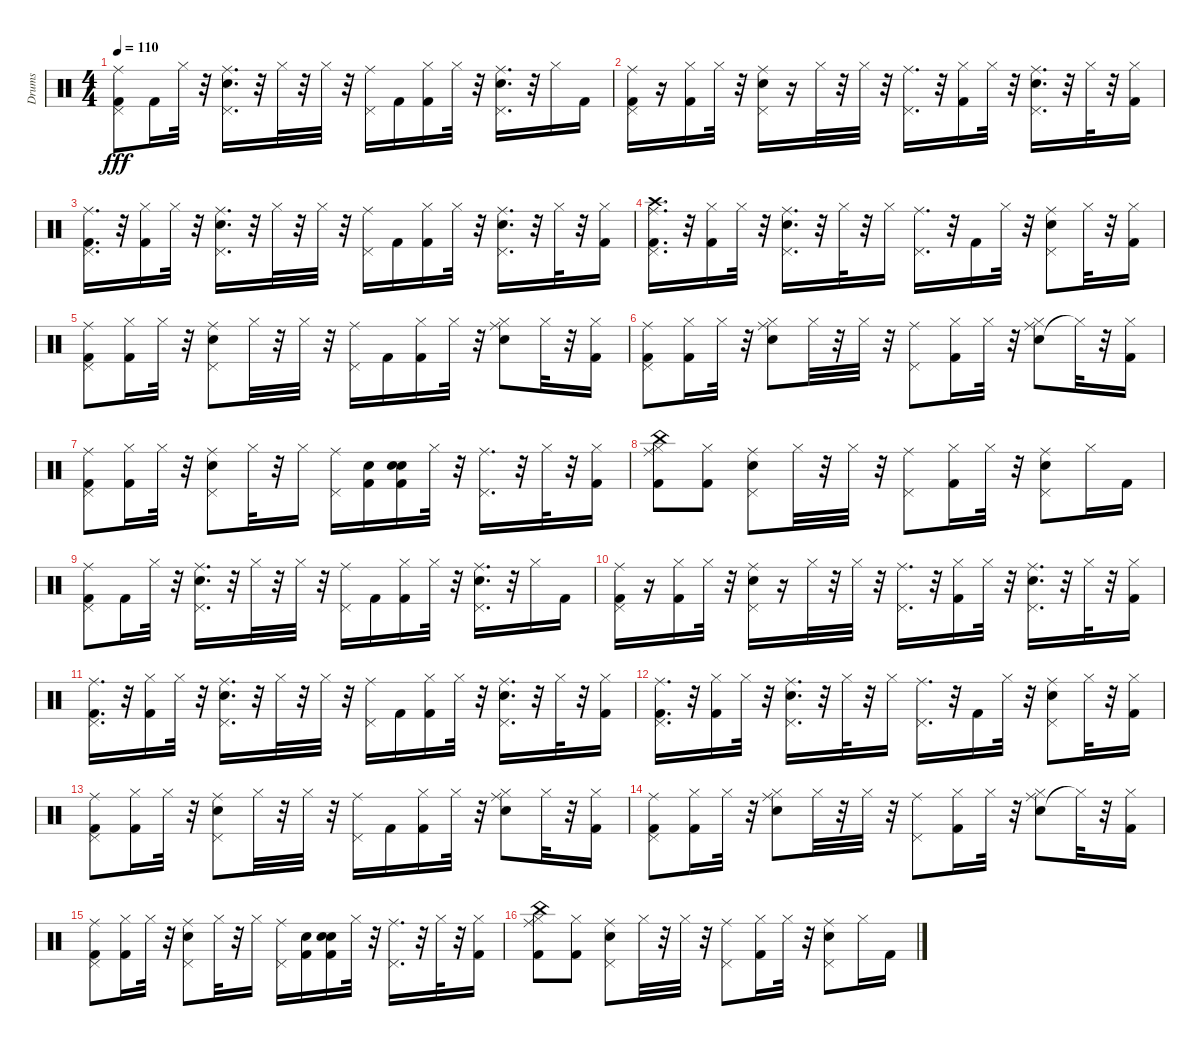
\track ("Drums" "Drums") {instrument percussion}
\staff {score}
\articulation defaults
\ts (4 4)
\tempo 110
\clef neutral
\ks c
("Kick (hit) 2" "Pedal Hi-Hat (hit)" "Ride (middle)").8{dy fff} "Kick (hit) 2".16 "Hi-Hat (closed)".32 r.32 ("Snare (hit) 2" "Pedal Hi-Hat (hit)" "Ride (middle)").16{d} r.32 "Hi-Hat (closed)".32 r.32 "Hi-Hat (closed)".32 r.32 ("Pedal Hi-Hat (hit)" "Ride (middle)").16 "Kick (hit) 2".16 ("Kick (hit) 2" "Hi-Hat (closed)").16 "Hi-Hat (closed)".32 r.32 ("Snare (hit) 2" "Pedal Hi-Hat (hit)" "Ride (middle)").16{d} r.32 "Hi-Hat (closed)".16 "Kick (hit) 2".16 |
("Kick (hit) 2" "Pedal Hi-Hat (hit)" "Ride (middle)").16 r.16 ("Kick (hit) 2" "Hi-Hat (closed)").16 "Hi-Hat (closed)".32 r.32 ("Snare (hit) 2" "Pedal Hi-Hat (hit)" "Ride (middle)").16 r.16 "Hi-Hat (closed)".32 r.32 "Hi-Hat (closed)".32 r.32 ("Pedal Hi-Hat (hit)" "Ride (middle)").16{d} r.32 ("Kick (hit) 2" "Hi-Hat (closed)").16 "Hi-Hat (closed)".32 r.32 ("Snare (hit) 2" "Pedal Hi-Hat (hit)" "Ride (middle)").16{d} r.32 "Hi-Hat (closed)".32 r.32 ("Kick (hit) 2" "Hi-Hat (closed)").16 |
("Kick (hit) 2" "Pedal Hi-Hat (hit)" "Ride (middle)").16{d} r.32 ("Kick (hit) 2" "Hi-Hat (closed)").16 "Hi-Hat (closed)".32 r.32 ("Snare (hit) 2" "Pedal Hi-Hat (hit)" "Ride (middle)").16{d} r.32 "Hi-Hat (closed)".32 r.32 "Hi-Hat (closed)".32 r.32 ("Pedal Hi-Hat (hit)" "Ride (middle)").16 "Kick (hit) 2".16 ("Kick (hit) 2" "Hi-Hat (closed)").16 "Hi-Hat (closed)".32 r.32 ("Snare (hit) 2" "Pedal Hi-Hat (hit)" "Ride (middle)").16{d} r.32 "Hi-Hat (closed)".32 r.32 ("Kick (hit) 2" "Hi-Hat (closed)").16 |
("Kick (hit) 2" "Pedal Hi-Hat (hit)" "Ride (middle)" "Crash high (hit)").16{d} r.32 ("Kick (hit) 2" "Hi-Hat (closed)").16 "Hi-Hat (closed)".32 r.32 ("Snare (hit) 2" "Pedal Hi-Hat (hit)" "Ride (middle)").16{d} r.32 "Hi-Hat (closed)".32 r.32 "Hi-Hat (closed)".16 ("Pedal Hi-Hat (hit)" "Ride (middle)").16{d} r.32 "Kick (hit) 2".16 "Hi-Hat (closed)".32 r.32 ("Snare (hit) 2" "Pedal Hi-Hat (hit)" "Ride (middle)").8 "Hi-Hat (closed)".32 r.32 ("Kick (hit) 2" "Hi-Hat (closed)").16 |
("Kick (hit) 2" "Pedal Hi-Hat (hit)" "Ride (middle)").8 ("Kick (hit) 2" "Hi-Hat (closed)").16 "Hi-Hat (closed)".32 r.32 ("Snare (hit) 2" "Pedal Hi-Hat (hit)" "Ride (middle)").8 "Hi-Hat (closed)".32 r.32 "Hi-Hat (closed)".32 r.32 ("Pedal Hi-Hat (hit)" "Ride (middle)").16 "Kick (hit) 2".16 ("Kick (hit) 2" "Hi-Hat (closed)").16 "Hi-Hat (closed)".32 r.32 ("Snare (hit) 2" "Hi-Hat (closed)" "Ride (middle)").8 "Hi-Hat (closed)".32 r.32 ("Kick (hit) 2" "Hi-Hat (closed)").16 |
("Kick (hit) 2" "Pedal Hi-Hat (hit)" "Ride (middle)").8 ("Kick (hit) 2" "Hi-Hat (closed)").16 "Hi-Hat (closed)".32 r.32 ("Snare (hit) 2" "Hi-Hat (closed)" "Ride (middle)").8 "Hi-Hat (closed)".32 r.32 "Hi-Hat (closed)".32 r.32 ("Pedal Hi-Hat (hit)" "Ride (middle)").8 ("Kick (hit) 2" "Hi-Hat (closed)").16 "Hi-Hat (closed)".32 r.32 ("Snare (hit) 2" "Hi-Hat (closed)" "Ride (middle)").8 "Hi-Hat (closed)"{t}.32 r.32 ("Kick (hit) 2" "Hi-Hat (closed)").16 |
("Kick (hit) 2" "Pedal Hi-Hat (hit)" "Ride (middle)").8 ("Kick (hit) 2" "Hi-Hat (closed)").16 "Hi-Hat (closed)".32 r.32 ("Snare (hit) 2" "Pedal Hi-Hat (hit)" "Ride (middle)").8 "Hi-Hat (closed)".32 r.32 "Hi-Hat (closed)".16 ("Pedal Hi-Hat (hit)" "Ride (middle)").16 ("Kick (hit) 2" "Snare (hit) 2").16 ("Snare (hit) 2" "Kick (hit) 2" "Snare (hit) 2").16 "Hi-Hat (closed)".32 r.32 ("Pedal Hi-Hat (hit)" "Ride (middle)").16{d} r.32 "Hi-Hat (closed)".32 r.32 ("Kick (hit) 2" "Hi-Hat (closed)").16 |
("Kick (hit) 2" "Hi-Hat (closed)" "Ride (middle)" "China (hit)").8 ("Kick (hit) 2" "Hi-Hat (closed)").8 ("Snare (hit) 2" "Pedal Hi-Hat (hit)" "Ride (middle)").8 "Hi-Hat (closed)".32 r.32 "Hi-Hat (closed)".32 r.32 ("Pedal Hi-Hat (hit)" "Ride (middle)").8 ("Kick (hit) 2" "Hi-Hat (closed)").16 "Hi-Hat (closed)".32 r.32 ("Snare (hit) 2" "Pedal Hi-Hat (hit)" "Ride (middle)").8 "Hi-Hat (closed)".16 "Kick (hit) 2".16 |
("Kick (hit) 2" "Pedal Hi-Hat (hit)" "Ride (middle)").8 "Kick (hit) 2".16 "Hi-Hat (closed)".32 r.32 ("Snare (hit) 2" "Pedal Hi-Hat (hit)" "Ride (middle)").16{d} r.32 "Hi-Hat (closed)".32 r.32 "Hi-Hat (closed)".32 r.32 ("Pedal Hi-Hat (hit)" "Ride (middle)").16 "Kick (hit) 2".16 ("Kick (hit) 2" "Hi-Hat (closed)").16 "Hi-Hat (closed)".32 r.32 ("Snare (hit) 2" "Pedal Hi-Hat (hit)" "Ride (middle)").16{d} r.32 "Hi-Hat (closed)".16 "Kick (hit) 2".16 |
("Kick (hit) 2" "Pedal Hi-Hat (hit)" "Ride (middle)").16 r.16 ("Kick (hit) 2" "Hi-Hat (closed)").16 "Hi-Hat (closed)".32 r.32 ("Snare (hit) 2" "Pedal Hi-Hat (hit)" "Ride (middle)").16 r.16 "Hi-Hat (closed)".32 r.32 "Hi-Hat (closed)".32 r.32 ("Pedal Hi-Hat (hit)" "Ride (middle)").16{d} r.32 ("Kick (hit) 2" "Hi-Hat (closed)").16 "Hi-Hat (closed)".32 r.32 ("Snare (hit) 2" "Pedal Hi-Hat (hit)" "Ride (middle)").16{d} r.32 "Hi-Hat (closed)".32 r.32 ("Kick (hit) 2" "Hi-Hat (closed)").16 |
("Kick (hit) 2" "Pedal Hi-Hat (hit)" "Ride (middle)").16{d} r.32 ("Kick (hit) 2" "Hi-Hat (closed)").16 "Hi-Hat (closed)".32 r.32 ("Snare (hit) 2" "Pedal Hi-Hat (hit)" "Ride (middle)").16{d} r.32 "Hi-Hat (closed)".32 r.32 "Hi-Hat (closed)".32 r.32 ("Pedal Hi-Hat (hit)" "Ride (middle)").16 "Kick (hit) 2".16 ("Kick (hit) 2" "Hi-Hat (closed)").16 "Hi-Hat (closed)".32 r.32 ("Snare (hit) 2" "Pedal Hi-Hat (hit)" "Ride (middle)").16{d} r.32 "Hi-Hat (closed)".32 r.32 ("Kick (hit) 2" "Hi-Hat (closed)").16 |
("Kick (hit) 2" "Pedal Hi-Hat (hit)" "Ride (middle)").16{d} r.32 ("Kick (hit) 2" "Hi-Hat (closed)").16 "Hi-Hat (closed)".32 r.32 ("Snare (hit) 2" "Pedal Hi-Hat (hit)" "Ride (middle)").16{d} r.32 "Hi-Hat (closed)".32 r.32 "Hi-Hat (closed)".16 ("Pedal Hi-Hat (hit)" "Ride (middle)").16{d} r.32 "Kick (hit) 2".16 "Hi-Hat (closed)".32 r.32 ("Snare (hit) 2" "Pedal Hi-Hat (hit)" "Ride (middle)").8 "Hi-Hat (closed)".32 r.32 ("Kick (hit) 2" "Hi-Hat (closed)").16 |
("Kick (hit) 2" "Pedal Hi-Hat (hit)" "Ride (middle)").8 ("Kick (hit) 2" "Hi-Hat (closed)").16 "Hi-Hat (closed)".32 r.32 ("Snare (hit) 2" "Pedal Hi-Hat (hit)" "Ride (middle)").8 "Hi-Hat (closed)".32 r.32 "Hi-Hat (closed)".32 r.32 ("Pedal Hi-Hat (hit)" "Ride (middle)").16 "Kick (hit) 2".16 ("Kick (hit) 2" "Hi-Hat (closed)").16 "Hi-Hat (closed)".32 r.32 ("Snare (hit) 2" "Hi-Hat (closed)" "Ride (middle)").8 "Hi-Hat (closed)".32 r.32 ("Kick (hit) 2" "Hi-Hat (closed)").16 |
("Kick (hit) 2" "Pedal Hi-Hat (hit)" "Ride (middle)").8 ("Kick (hit) 2" "Hi-Hat (closed)").16 "Hi-Hat (closed)".32 r.32 ("Snare (hit) 2" "Hi-Hat (closed)" "Ride (middle)").8 "Hi-Hat (closed)".32 r.32 "Hi-Hat (closed)".32 r.32 ("Pedal Hi-Hat (hit)" "Ride (middle)").8 ("Kick (hit) 2" "Hi-Hat (closed)").16 "Hi-Hat (closed)".32 r.32 ("Snare (hit) 2" "Hi-Hat (closed)" "Ride (middle)").8 "Hi-Hat (closed)"{t}.32 r.32 ("Kick (hit) 2" "Hi-Hat (closed)").16 |
("Kick (hit) 2" "Pedal Hi-Hat (hit)" "Ride (middle)").8 ("Kick (hit) 2" "Hi-Hat (closed)").16 "Hi-Hat (closed)".32 r.32 ("Snare (hit) 2" "Pedal Hi-Hat (hit)" "Ride (middle)").8 "Hi-Hat (closed)".32 r.32 "Hi-Hat (closed)".16 ("Pedal Hi-Hat (hit)" "Ride (middle)").16 ("Kick (hit) 2" "Snare (hit) 2").16 ("Snare (hit) 2" "Kick (hit) 2" "Snare (hit) 2").16 "Hi-Hat (closed)".32 r.32 ("Pedal Hi-Hat (hit)" "Ride (middle)").16{d} r.32 "Hi-Hat (closed)".32 r.32 ("Kick (hit) 2" "Hi-Hat (closed)").16 |
("Kick (hit) 2" "Hi-Hat (closed)" "Ride (middle)" "China (hit)").8 ("Kick (hit) 2" "Hi-Hat (closed)").8 ("Snare (hit) 2" "Pedal Hi-Hat (hit)" "Ride (middle)").8 "Hi-Hat (closed)".32 r.32 "Hi-Hat (closed)".32 r.32 ("Pedal Hi-Hat (hit)" "Ride (middle)").8 ("Kick (hit) 2" "Hi-Hat (closed)").16 "Hi-Hat (closed)".32 r.32 ("Snare (hit) 2" "Pedal Hi-Hat (hit)" "Ride (middle)").8 "Hi-Hat (closed)".16 "Kick (hit) 2".16
